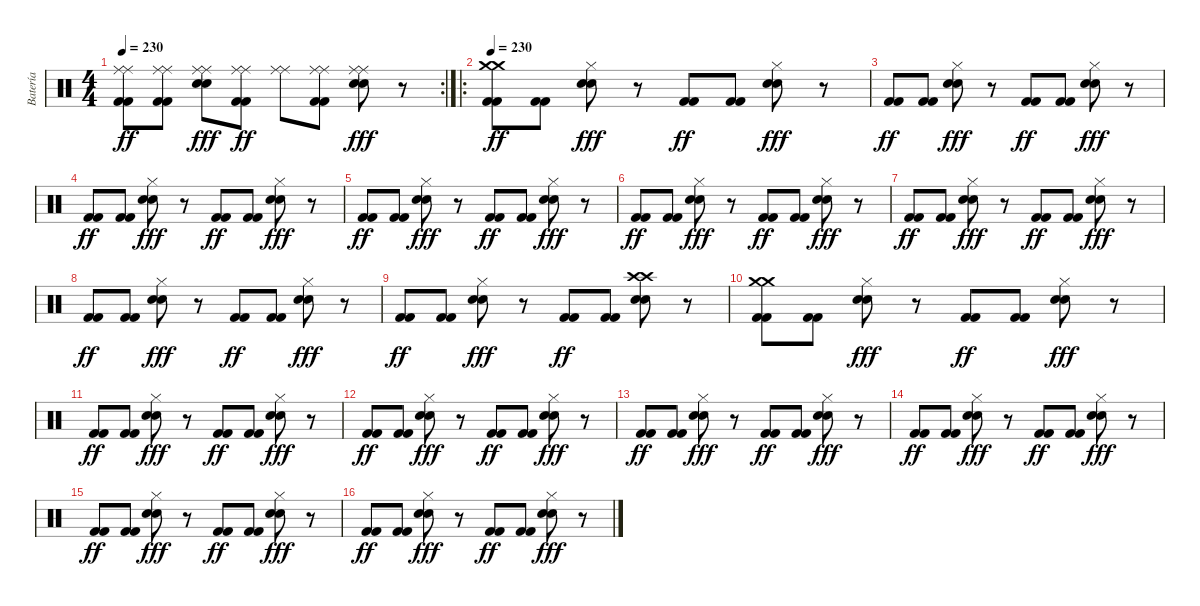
\track ("Batería" "Batería") {instrument percussion}
\staff {score}
\articulation defaults
\rc 2
\ts (4 4)
\tempo 230
\clef neutral
\ks c
("Ride (middle)" "Ride (middle)" "Kick (hit) 2" "Kick (hit) 2").8{dy ff} ("Ride (middle)" "Ride (middle)" "Kick (hit) 2" "Kick (hit) 2").8 ("Ride (middle)" "Ride (middle)" "Electric Snare (hit)" "Electric Snare (hit)").8{dy fff} ("Ride (middle)" "Ride (middle)" "Kick (hit) 2" "Kick (hit) 2").8{dy ff} ("Ride (middle)" "Ride (middle)").8 ("Ride (middle)" "Ride (middle)" "Kick (hit) 2" "Kick (hit) 2").8 ("Ride (middle)" "Ride (middle)" "Electric Snare (hit)" "Electric Snare (hit)").8{dy fff} r.8 |
\ro
\tempo 230
("Crash medium (hit)" "Crash medium (hit)" "Kick (hit) 2" "Kick (hit) 2").8{dy ff} ("Kick (hit) 2" "Kick (hit) 2").8 ("Hi-Hat (closed)" "Electric Snare (hit)" "Electric Snare (hit)").8{dy fff} r.8 ("Kick (hit) 2" "Kick (hit) 2").8{dy ff} ("Kick (hit) 2" "Kick (hit) 2").8 ("Hi-Hat (closed)" "Electric Snare (hit)" "Electric Snare (hit)").8{dy fff} r.8 |
("Kick (hit) 2" "Kick (hit) 2").8{dy ff} ("Kick (hit) 2" "Kick (hit) 2").8 ("Hi-Hat (closed)" "Electric Snare (hit)" "Electric Snare (hit)").8{dy fff} r.8 ("Kick (hit) 2" "Kick (hit) 2").8{dy ff} ("Kick (hit) 2" "Kick (hit) 2").8 ("Hi-Hat (closed)" "Electric Snare (hit)" "Electric Snare (hit)").8{dy fff} r.8 |
("Kick (hit) 2" "Kick (hit) 2").8{dy ff} ("Kick (hit) 2" "Kick (hit) 2").8 ("Hi-Hat (closed)" "Electric Snare (hit)" "Electric Snare (hit)").8{dy fff} r.8 ("Kick (hit) 2" "Kick (hit) 2").8{dy ff} ("Kick (hit) 2" "Kick (hit) 2").8 ("Hi-Hat (closed)" "Electric Snare (hit)" "Electric Snare (hit)").8{dy fff} r.8 |
("Kick (hit) 2" "Kick (hit) 2").8{dy ff} ("Kick (hit) 2" "Kick (hit) 2").8 ("Hi-Hat (closed)" "Electric Snare (hit)" "Electric Snare (hit)").8{dy fff} r.8 ("Kick (hit) 2" "Kick (hit) 2").8{dy ff} ("Kick (hit) 2" "Kick (hit) 2").8 ("Hi-Hat (closed)" "Electric Snare (hit)" "Electric Snare (hit)").8{dy fff} r.8 |
("Kick (hit) 2" "Kick (hit) 2").8{dy ff} ("Kick (hit) 2" "Kick (hit) 2").8 ("Hi-Hat (closed)" "Electric Snare (hit)" "Electric Snare (hit)").8{dy fff} r.8 ("Kick (hit) 2" "Kick (hit) 2").8{dy ff} ("Kick (hit) 2" "Kick (hit) 2").8 ("Hi-Hat (closed)" "Electric Snare (hit)" "Electric Snare (hit)").8{dy fff} r.8 |
("Kick (hit) 2" "Kick (hit) 2").8{dy ff} ("Kick (hit) 2" "Kick (hit) 2").8 ("Hi-Hat (closed)" "Electric Snare (hit)" "Electric Snare (hit)").8{dy fff} r.8 ("Kick (hit) 2" "Kick (hit) 2").8{dy ff} ("Kick (hit) 2" "Kick (hit) 2").8 ("Hi-Hat (closed)" "Electric Snare (hit)" "Electric Snare (hit)").8{dy fff} r.8 |
("Kick (hit) 2" "Kick (hit) 2").8{dy ff} ("Kick (hit) 2" "Kick (hit) 2").8 ("Hi-Hat (closed)" "Electric Snare (hit)" "Electric Snare (hit)").8{dy fff} r.8 ("Kick (hit) 2" "Kick (hit) 2").8{dy ff} ("Kick (hit) 2" "Kick (hit) 2").8 ("Hi-Hat (closed)" "Electric Snare (hit)" "Electric Snare (hit)").8{dy fff} r.8 |
("Kick (hit) 2" "Kick (hit) 2").8{dy ff} ("Kick (hit) 2" "Kick (hit) 2").8 ("Hi-Hat (closed)" "Electric Snare (hit)" "Electric Snare (hit)").8{dy fff} r.8 ("Kick (hit) 2" "Kick (hit) 2").8{dy ff} ("Kick (hit) 2" "Kick (hit) 2").8 ("Crash high (hit)" "Crash high (hit)" "Electric Snare (hit)" "Electric Snare (hit)").8 r.8 |
("Crash medium (hit)" "Crash medium (hit)" "Kick (hit) 2" "Kick (hit) 2").8 ("Kick (hit) 2" "Kick (hit) 2").8 ("Hi-Hat (closed)" "Electric Snare (hit)" "Electric Snare (hit)").8{dy fff} r.8 ("Kick (hit) 2" "Kick (hit) 2").8{dy ff} ("Kick (hit) 2" "Kick (hit) 2").8 ("Hi-Hat (closed)" "Electric Snare (hit)" "Electric Snare (hit)").8{dy fff} r.8 |
("Kick (hit) 2" "Kick (hit) 2").8{dy ff} ("Kick (hit) 2" "Kick (hit) 2").8 ("Hi-Hat (closed)" "Electric Snare (hit)" "Electric Snare (hit)").8{dy fff} r.8 ("Kick (hit) 2" "Kick (hit) 2").8{dy ff} ("Kick (hit) 2" "Kick (hit) 2").8 ("Hi-Hat (closed)" "Electric Snare (hit)" "Electric Snare (hit)").8{dy fff} r.8 |
("Kick (hit) 2" "Kick (hit) 2").8{dy ff} ("Kick (hit) 2" "Kick (hit) 2").8 ("Hi-Hat (closed)" "Electric Snare (hit)" "Electric Snare (hit)").8{dy fff} r.8 ("Kick (hit) 2" "Kick (hit) 2").8{dy ff} ("Kick (hit) 2" "Kick (hit) 2").8 ("Hi-Hat (closed)" "Electric Snare (hit)" "Electric Snare (hit)").8{dy fff} r.8 |
("Kick (hit) 2" "Kick (hit) 2").8{dy ff} ("Kick (hit) 2" "Kick (hit) 2").8 ("Hi-Hat (closed)" "Electric Snare (hit)" "Electric Snare (hit)").8{dy fff} r.8 ("Kick (hit) 2" "Kick (hit) 2").8{dy ff} ("Kick (hit) 2" "Kick (hit) 2").8 ("Hi-Hat (closed)" "Electric Snare (hit)" "Electric Snare (hit)").8{dy fff} r.8 |
("Kick (hit) 2" "Kick (hit) 2").8{dy ff} ("Kick (hit) 2" "Kick (hit) 2").8 ("Hi-Hat (closed)" "Electric Snare (hit)" "Electric Snare (hit)").8{dy fff} r.8 ("Kick (hit) 2" "Kick (hit) 2").8{dy ff} ("Kick (hit) 2" "Kick (hit) 2").8 ("Hi-Hat (closed)" "Electric Snare (hit)" "Electric Snare (hit)").8{dy fff} r.8 |
("Kick (hit) 2" "Kick (hit) 2").8{dy ff} ("Kick (hit) 2" "Kick (hit) 2").8 ("Hi-Hat (closed)" "Electric Snare (hit)" "Electric Snare (hit)").8{dy fff} r.8 ("Kick (hit) 2" "Kick (hit) 2").8{dy ff} ("Kick (hit) 2" "Kick (hit) 2").8 ("Hi-Hat (closed)" "Electric Snare (hit)" "Electric Snare (hit)").8{dy fff} r.8 |
("Kick (hit) 2" "Kick (hit) 2").8{dy ff} ("Kick (hit) 2" "Kick (hit) 2").8 ("Hi-Hat (closed)" "Electric Snare (hit)" "Electric Snare (hit)").8{dy fff} r.8 ("Kick (hit) 2" "Kick (hit) 2").8{dy ff} ("Kick (hit) 2" "Kick (hit) 2").8 ("Hi-Hat (closed)" "Electric Snare (hit)" "Electric Snare (hit)").8{dy fff} r.8
